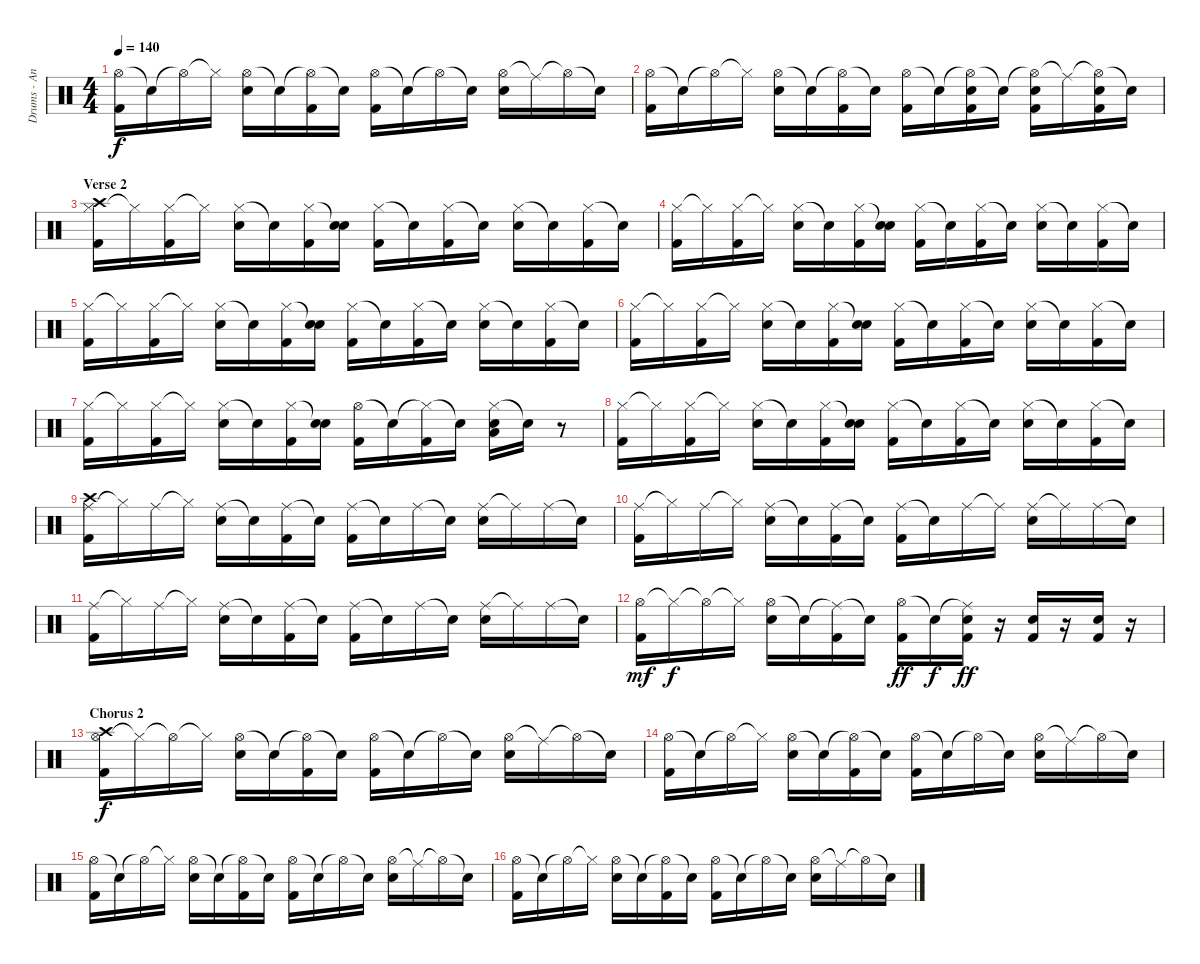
\track ("Drums - Andy Strachan" "Drums - An") {instrument percussion}
\staff {score}
\articulation defaults
\ts (4 4)
\tempo 140
\clef neutral
\ks c
("Hi-Hat (open)" "Kick (hit) 2").16{dy f} "Snare (hit)"{t}.16 "Hi-Hat (open)"{t}.16 "Hi-Hat (closed)"{t}.16 ("Hi-Hat (open)" "Electric Snare (hit)").16 "Snare (hit)"{t}.16 ("Hi-Hat (open)"{t} "Kick (hit) 2").16 "Snare (hit)"{t}.16 ("Hi-Hat (open)" "Kick (hit) 2").16 "Snare (hit)"{t}.16 "Hi-Hat (open)"{t}.16 "Snare (hit)"{t}.16 ("Hi-Hat (open)" "Electric Snare (hit)").16 "Ride (middle)"{t}.16 "Hi-Hat (open)"{t}.16 "Snare (hit)"{t}.16 |
("Hi-Hat (open)" "Kick (hit) 2").16 "Snare (hit)"{t}.16 "Hi-Hat (open)"{t}.16 "Hi-Hat (closed)"{t}.16 ("Hi-Hat (open)" "Electric Snare (hit)").16 "Snare (hit)"{t}.16 ("Hi-Hat (open)"{t} "Kick (hit) 2").16 "Snare (hit)"{t}.16 ("Hi-Hat (open)" "Kick (hit) 2").16 "Snare (hit)"{t}.16 ("Hi-Hat (open)"{t} "Kick (hit) 2" "Electric Snare (hit)").16 "Snare (hit)"{t}.16 ("Hi-Hat (open)"{t} "Kick (hit) 2" "Electric Snare (hit)").16 "Ride (middle)"{t}.16 ("Hi-Hat (open)"{t} "Kick (hit) 2" "Electric Snare (hit)").16 "Snare (hit)"{t}.16 |
\section ("" "Verse 2")
("Hi-Hat (closed)" "Kick (hit) 2" "Crash high (hit)").16 "Hi-Hat (closed)"{t}.16 ("Hi-Hat (closed)" "Kick (hit) 2").16 "Hi-Hat (closed)"{t}.16 ("Hi-Hat (closed)" "Electric Snare (hit)").16 "Snare (hit)"{t}.16 ("Hi-Hat (closed)" "Kick (hit) 2").16 ("Snare (hit)"{t} "Electric Snare (hit)").16 ("Hi-Hat (closed)" "Kick (hit) 2").16 "Snare (hit)"{t}.16 ("Hi-Hat (closed)" "Kick (hit) 2").16 "Snare (hit)"{t}.16 ("Hi-Hat (closed)" "Electric Snare (hit)").16 "Snare (hit)"{t}.16 ("Hi-Hat (closed)" "Kick (hit) 2").16 "Snare (hit)"{t}.16 |
("Hi-Hat (closed)" "Kick (hit) 2").16 "Hi-Hat (closed)"{t}.16 ("Hi-Hat (closed)" "Kick (hit) 2").16 "Hi-Hat (closed)"{t}.16 ("Hi-Hat (closed)" "Electric Snare (hit)").16 "Snare (hit)"{t}.16 ("Hi-Hat (closed)" "Kick (hit) 2").16 ("Snare (hit)"{t} "Electric Snare (hit)").16 ("Hi-Hat (closed)" "Kick (hit) 2").16 "Snare (hit)"{t}.16 ("Hi-Hat (closed)" "Kick (hit) 2").16 "Snare (hit)"{t}.16 ("Hi-Hat (closed)" "Electric Snare (hit)").16 "Snare (hit)"{t}.16 ("Hi-Hat (closed)" "Kick (hit) 2").16 "Snare (hit)"{t}.16 |
("Hi-Hat (closed)" "Kick (hit) 2").16 "Hi-Hat (closed)"{t}.16 ("Hi-Hat (closed)" "Kick (hit) 2").16 "Hi-Hat (closed)"{t}.16 ("Hi-Hat (closed)" "Electric Snare (hit)").16 "Snare (hit)"{t}.16 ("Hi-Hat (closed)" "Kick (hit) 2").16 ("Snare (hit)"{t} "Electric Snare (hit)").16 ("Hi-Hat (closed)" "Kick (hit) 2").16 "Snare (hit)"{t}.16 ("Hi-Hat (closed)" "Kick (hit) 2").16 "Snare (hit)"{t}.16 ("Hi-Hat (closed)" "Electric Snare (hit)").16 "Snare (hit)"{t}.16 ("Hi-Hat (closed)" "Kick (hit) 2").16 "Snare (hit)"{t}.16 |
("Hi-Hat (closed)" "Kick (hit) 2").16 "Hi-Hat (closed)"{t}.16 ("Hi-Hat (closed)" "Kick (hit) 2").16 "Hi-Hat (closed)"{t}.16 ("Hi-Hat (closed)" "Electric Snare (hit)").16 "Snare (hit)"{t}.16 ("Hi-Hat (closed)" "Kick (hit) 2").16 ("Snare (hit)"{t} "Electric Snare (hit)").16 ("Hi-Hat (closed)" "Kick (hit) 2").16 "Snare (hit)"{t}.16 ("Hi-Hat (closed)" "Kick (hit) 2").16 "Snare (hit)"{t}.16 ("Hi-Hat (closed)" "Electric Snare (hit)").16 "Snare (hit)"{t}.16 ("Hi-Hat (closed)" "Kick (hit) 2").16 "Snare (hit)"{t}.16 |
("Hi-Hat (closed)" "Kick (hit) 2").16 "Hi-Hat (closed)"{t}.16 ("Hi-Hat (closed)" "Kick (hit) 2").16 "Hi-Hat (closed)"{t}.16 ("Hi-Hat (closed)" "Electric Snare (hit)").16 "Snare (hit)"{t}.16 ("Hi-Hat (closed)" "Kick (hit) 2").16 ("Snare (hit)"{t} "Electric Snare (hit)").16 ("Hi-Hat (open)" "Kick (hit) 2").16 "Snare (hit)"{t}.16 ("Hi-Hat (closed)"{t} "Kick (hit) 2").16 "Snare (hit)"{t}.16 ("Hi-Hat (closed)" "Electric Snare (hit)" "Low Floor Tom (hit)").16 "Snare (hit)"{t}.16 r.8 |
("Hi-Hat (closed)" "Kick (hit) 2").16 "Hi-Hat (closed)"{t}.16 ("Hi-Hat (closed)" "Kick (hit) 2").16 "Hi-Hat (closed)"{t}.16 ("Hi-Hat (closed)" "Electric Snare (hit)").16 "Snare (hit)"{t}.16 ("Hi-Hat (closed)" "Kick (hit) 2").16 ("Snare (hit)"{t} "Electric Snare (hit)").16 ("Hi-Hat (closed)" "Kick (hit) 2").16 "Snare (hit)"{t}.16 ("Hi-Hat (closed)" "Kick (hit) 2").16 "Snare (hit)"{t}.16 ("Hi-Hat (closed)" "Electric Snare (hit)").16 "Snare (hit)"{t}.16 ("Hi-Hat (closed)" "Kick (hit) 2").16 "Snare (hit)"{t}.16 |
("Ride (middle)" "Kick (hit) 2" "Crash high (hit)").16 "Hi-Hat (closed)"{t}.16 "Ride (middle)".16 "Hi-Hat (closed)"{t}.16 ("Ride (middle)" "Electric Snare (hit)").16 "Snare (hit)"{t}.16 ("Ride (middle)" "Kick (hit) 2").16 "Snare (hit)"{t}.16 ("Ride (middle)" "Kick (hit) 2").16 "Snare (hit)"{t}.16 "Ride (middle)".16 "Snare (hit)"{t}.16 ("Ride (middle)" "Electric Snare (hit)").16 "Ride (middle)"{t}.16 "Ride (middle)".16 "Snare (hit)"{t}.16 |
("Ride (middle)" "Kick (hit) 2").16 "Hi-Hat (closed)"{t}.16 "Ride (middle)".16 "Hi-Hat (closed)"{t}.16 ("Ride (middle)" "Electric Snare (hit)").16 "Snare (hit)"{t}.16 ("Ride (middle)" "Kick (hit) 2").16 "Snare (hit)"{t}.16 ("Ride (middle)" "Kick (hit) 2").16 "Snare (hit)"{t}.16 "Ride (middle)".16 "Ride (middle)"{t}.16 ("Ride (middle)" "Electric Snare (hit)").16 "Ride (middle)"{t}.16 "Ride (middle)".16 "Snare (hit)"{t}.16 |
("Ride (middle)" "Kick (hit) 2").16 "Hi-Hat (closed)"{t}.16 "Ride (middle)".16 "Hi-Hat (closed)"{t}.16 ("Ride (middle)" "Electric Snare (hit)").16 "Snare (hit)"{t}.16 ("Ride (middle)" "Kick (hit) 2").16 "Snare (hit)"{t}.16 ("Ride (middle)" "Kick (hit) 2").16 "Snare (hit)"{t}.16 "Ride (middle)".16 "Snare (hit)"{t}.16 ("Ride (middle)" "Electric Snare (hit)").16 "Ride (middle)"{t}.16 "Ride (middle)".16 "Snare (hit)"{t}.16 |
("Hi-Hat (open)" "Kick (hit) 2").16{dy mf} "Hi-Hat (closed)"{t}.16{dy f} "Hi-Hat (open)"{t}.16 "Hi-Hat (closed)"{t}.16 ("Hi-Hat (open)" "Electric Snare (hit)").16 "Snare (hit)"{t}.16 ("Ride (middle)"{t} "Kick (hit) 2").16 "Snare (hit)"{t}.16 ("Hi-Hat (open)" "Kick (hit) 2").16{dy ff} "Snare (hit)"{t}.16{dy f} ("Ride (middle)"{t} "Kick (hit) 2" "Electric Snare (hit)").16{dy ff} r.16 ("Kick (hit) 2" "Electric Snare (hit)").16 r.16 ("Kick (hit) 2" "Electric Snare (hit)").16 r.16 |
\section ("" "Chorus 2")
("Hi-Hat (open)" "Kick (hit) 2" "Crash high (hit)").16{dy f} "Hi-Hat (closed)"{t}.16 "Hi-Hat (open)"{t}.16 "Hi-Hat (closed)"{t}.16 ("Hi-Hat (open)" "Electric Snare (hit)").16 "Snare (hit)"{t}.16 ("Hi-Hat (open)"{t} "Kick (hit) 2").16 "Snare (hit)"{t}.16 ("Hi-Hat (open)" "Kick (hit) 2").16 "Snare (hit)"{t}.16 "Hi-Hat (open)"{t}.16 "Snare (hit)"{t}.16 ("Hi-Hat (open)" "Electric Snare (hit)").16 "Ride (middle)"{t}.16 "Hi-Hat (open)"{t}.16 "Snare (hit)"{t}.16 |
("Hi-Hat (open)" "Kick (hit) 2").16 "Snare (hit)"{t}.16 "Hi-Hat (open)"{t}.16 "Hi-Hat (closed)"{t}.16 ("Hi-Hat (open)" "Electric Snare (hit)").16 "Snare (hit)"{t}.16 ("Hi-Hat (open)"{t} "Kick (hit) 2").16 "Snare (hit)"{t}.16 ("Hi-Hat (open)" "Kick (hit) 2").16 "Snare (hit)"{t}.16 "Hi-Hat (open)"{t}.16 "Snare (hit)"{t}.16 ("Hi-Hat (open)" "Electric Snare (hit)").16 "Ride (middle)"{t}.16 "Hi-Hat (open)"{t}.16 "Snare (hit)"{t}.16 |
("Hi-Hat (open)" "Kick (hit) 2").16 "Snare (hit)"{t}.16 "Hi-Hat (open)"{t}.16 "Hi-Hat (closed)"{t}.16 ("Hi-Hat (open)" "Electric Snare (hit)").16 "Snare (hit)"{t}.16 ("Hi-Hat (open)"{t} "Kick (hit) 2").16 "Snare (hit)"{t}.16 ("Hi-Hat (open)" "Kick (hit) 2").16 "Snare (hit)"{t}.16 "Hi-Hat (open)"{t}.16 "Snare (hit)"{t}.16 ("Hi-Hat (open)" "Electric Snare (hit)").16 "Ride (middle)"{t}.16 "Hi-Hat (open)"{t}.16 "Snare (hit)"{t}.16 |
("Hi-Hat (open)" "Kick (hit) 2").16 "Snare (hit)"{t}.16 "Hi-Hat (open)"{t}.16 "Hi-Hat (closed)"{t}.16 ("Hi-Hat (open)" "Electric Snare (hit)").16 "Snare (hit)"{t}.16 ("Hi-Hat (open)"{t} "Kick (hit) 2").16 "Snare (hit)"{t}.16 ("Hi-Hat (open)" "Kick (hit) 2").16 "Snare (hit)"{t}.16 "Hi-Hat (open)"{t}.16 "Snare (hit)"{t}.16 ("Hi-Hat (open)" "Electric Snare (hit)").16 "Ride (middle)"{t}.16 "Hi-Hat (open)"{t}.16 "Snare (hit)"{t}.16
